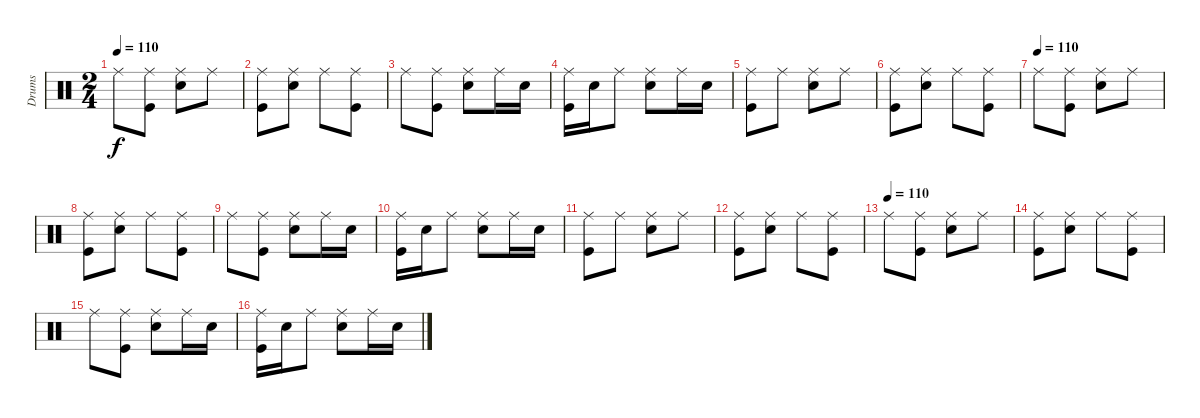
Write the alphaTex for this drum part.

\track ("Drums" "Drums") {instrument percussion}
\staff {score}
\articulation defaults
\ts (2 4)
\section ("" "")
\tempo 110
\clef neutral
\ks c "Ride (middle)".8{dy f}
("Ride (middle)" "Kick (hit)").8 ("Ride (middle)" "Snare (hit) 2").8 "Ride (middle)".8 |
("Ride (middle)" "Kick (hit)").8 ("Ride (middle)" "Snare (hit) 2").8 "Ride (middle)".8 ("Ride (middle)" "Kick (hit)").8 |
"Ride (middle)".8 ("Ride (middle)" "Kick (hit)").8 ("Ride (middle)" "Snare (hit) 2").8 "Ride (middle)".16 "Snare (hit) 2".16 |
("Ride (middle)" "Kick (hit)").16 "Snare (hit) 2".16 "Ride (middle)".8 ("Ride (middle)" "Snare (hit) 2").8 "Ride (middle)".16 "Snare (hit) 2".16 |
("Ride (middle)" "Kick (hit)").8 "Ride (middle)".8 ("Ride (middle)" "Snare (hit) 2").8 "Ride (middle)".8 |
("Ride (middle)" "Kick (hit)").8 ("Ride (middle)" "Snare (hit) 2").8 "Ride (middle)".8 ("Ride (middle)" "Kick (hit)").8 |
\tempo (110)
"Ride (middle)".8 ("Ride (middle)" "Kick (hit)").8 ("Ride (middle)" "Snare (hit) 2").8 "Ride (middle)".8 |
("Ride (middle)" "Kick (hit)").8 ("Ride (middle)" "Snare (hit) 2").8 "Ride (middle)".8 ("Ride (middle)" "Kick (hit)").8 |
"Ride (middle)".8 ("Ride (middle)" "Kick (hit)").8 ("Ride (middle)" "Snare (hit) 2").8 "Ride (middle)".16 "Snare (hit) 2".16 |
("Ride (middle)" "Kick (hit)").16 "Snare (hit) 2".16 "Ride (middle)".8 ("Ride (middle)" "Snare (hit) 2").8 "Ride (middle)".16 "Snare (hit) 2".16 |
("Ride (middle)" "Kick (hit)").8 "Ride (middle)".8 ("Ride (middle)" "Snare (hit) 2").8 "Ride (middle)".8 |
("Ride (middle)" "Kick (hit)").8 ("Ride (middle)" "Snare (hit) 2").8 "Ride (middle)".8 ("Ride (middle)" "Kick (hit)").8 |
\tempo (110)
"Ride (middle)".8 ("Ride (middle)" "Kick (hit)").8 ("Ride (middle)" "Snare (hit) 2").8 "Ride (middle)".8 |
("Ride (middle)" "Kick (hit)").8 ("Ride (middle)" "Snare (hit) 2").8 "Ride (middle)".8 ("Ride (middle)" "Kick (hit)").8 |
"Ride (middle)".8 ("Ride (middle)" "Kick (hit)").8 ("Ride (middle)" "Snare (hit) 2").8 "Ride (middle)".16 "Snare (hit) 2".16 |
("Ride (middle)" "Kick (hit)").16 "Snare (hit) 2".16 "Ride (middle)".8 ("Ride (middle)" "Snare (hit) 2").8 "Ride (middle)".16 "Snare (hit) 2".16
